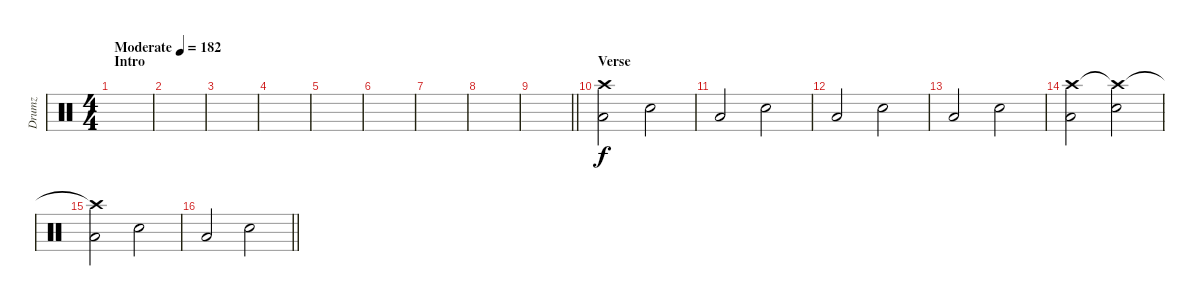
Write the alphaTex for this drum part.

\track ("Drumz" "Drumz") {instrument percussion}
\staff {score}
\articulation defaults
\ts (4 4)
\section ("" "Intro")
\tempo (182 "Moderate")
\clef neutral
\ks c
|
|
|
|
|
|
|
|
\barLineRight lightlight
|
\section ("" "Verse")
("Low Floor Tom (hit)" "Crash high (hit)").2 "Snare (hit) 2".2 |
"Low Floor Tom (hit)".2 "Snare (hit) 2".2 |
"Low Floor Tom (hit)".2 "Snare (hit) 2".2 |
"Low Floor Tom (hit)".2 "Snare (hit) 2".2 |
("Crash high (hit)" "Low Floor Tom (hit)").2 ("Crash high (hit)"{t} "Snare (hit) 2").2 |
("Crash high (hit)"{t} "Low Floor Tom (hit)").2 "Snare (hit) 2".2 |
\barLineRight lightlight "Low Floor Tom (hit)".2 "Snare (hit) 2".2
